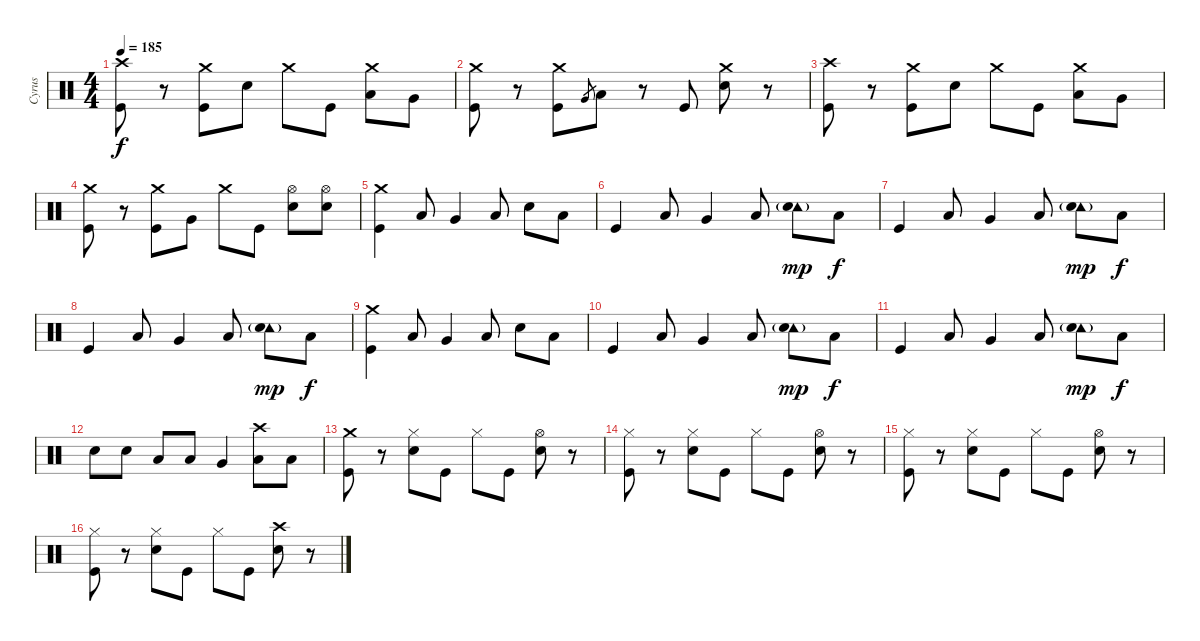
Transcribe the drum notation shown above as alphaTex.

\track ("Cyrus" "Cyrus") {instrument percussion}
\staff {score}
\articulation defaults
\ts (4 4)
\tempo 185
\clef neutral
\ks c
("Crash high (hit)" "Kick (hit)").8{dy f} r.8 ("Crash medium (hit)" "Kick (hit)").8 "Electric Snare (hit)".8 "Crash medium (hit)".8 "Kick (hit)".8 ("Crash medium (hit)" "Low Tom (hit)").8 "Very Low Tom (hit)".8 |
("Crash medium (hit)" "Kick (hit)").8 r.8 ("Crash medium (hit)" "Kick (hit)").8 "Very Low Tom (hit)".8{gr} "Low Tom (hit)".8 r.8 "Kick (hit)".8 ("Crash medium (hit)" "Electric Snare (hit)").8 r.8 |
("Crash high (hit)" "Kick (hit)").8 r.8 ("Crash medium (hit)" "Kick (hit)").8 "Electric Snare (hit)".8 "Crash medium (hit)".8 "Kick (hit)".8 ("Crash medium (hit)" "Low Tom (hit)").8 "Very Low Tom (hit)".8 |
("Crash medium (hit)" "Kick (hit)").8 r.8 ("Crash medium (hit)" "Kick (hit)").8 "Very Low Tom (hit)".8 "Crash medium (hit)".8 "Kick (hit)".8 ("Hi-Hat (open)" "Electric Snare (hit)").8 ("Hi-Hat (open)" "Electric Snare (hit)").8 |
("Crash medium (hit)" "Kick (hit)").4 "Low Tom (hit)".8 "Very Low Tom (hit)".4 "Low Tom (hit)".8 "Electric Snare (hit)".8 "Low Floor Tom (hit)".8 |
"Kick (hit)".4 "Low Tom (hit)".8 "Very Low Tom (hit)".4 "Low Tom (hit)".8 ("Tambourine (hit)"{g} "Electric Snare (hit)").8{dy mp} "Low Floor Tom (hit)".8{dy f} |
"Kick (hit)".4 "Low Tom (hit)".8 "Very Low Tom (hit)".4 "Low Tom (hit)".8 ("Tambourine (hit)"{g} "Electric Snare (hit)").8{dy mp} "Low Floor Tom (hit)".8{dy f} |
"Kick (hit)".4 "Low Tom (hit)".8 "Very Low Tom (hit)".4 "Low Tom (hit)".8 ("Tambourine (hit)"{g} "Electric Snare (hit)").8{dy mp} "Low Floor Tom (hit)".8{dy f} |
("Crash medium (hit)" "Kick (hit)").4 "Low Tom (hit)".8 "Very Low Tom (hit)".4 "Low Tom (hit)".8 "Electric Snare (hit)".8 "Low Floor Tom (hit)".8 |
"Kick (hit)".4 "Low Tom (hit)".8 "Very Low Tom (hit)".4 "Low Tom (hit)".8 ("Tambourine (hit)"{g} "Electric Snare (hit)").8{dy mp} "Low Floor Tom (hit)".8{dy f} |
"Kick (hit)".4 "Low Tom (hit)".8 "Very Low Tom (hit)".4 "Low Tom (hit)".8 ("Tambourine (hit)"{g} "Electric Snare (hit)").8{dy mp} "Low Floor Tom (hit)".8{dy f} |
"Electric Snare (hit)".8 "Electric Snare (hit)".8 "Low Tom (hit)".8 "Low Tom (hit)".8 "Very Low Tom (hit)".4 ("Crash high (hit)" "Low Floor Tom (hit)").8 "Low Floor Tom (hit)".8 |
("Crash medium (hit)" "Kick (hit)").8 r.8 ("Hi-Hat (closed)" "Electric Snare (hit)").8 "Kick (hit)".8 "Hi-Hat (closed)".8 "Kick (hit)".8 ("Hi-Hat (open)" "Electric Snare (hit)").8 r.8 |
("Hi-Hat (closed)" "Kick (hit)").8 r.8 ("Hi-Hat (closed)" "Electric Snare (hit)").8 "Kick (hit)".8 "Hi-Hat (closed)".8 "Kick (hit)".8 ("Hi-Hat (open)" "Electric Snare (hit)").8 r.8 |
("Hi-Hat (closed)" "Kick (hit)").8 r.8 ("Hi-Hat (closed)" "Electric Snare (hit)").8 "Kick (hit)".8 "Hi-Hat (closed)".8 "Kick (hit)".8 ("Hi-Hat (open)" "Electric Snare (hit)").8 r.8 |
("Hi-Hat (closed)" "Kick (hit)").8 r.8 ("Hi-Hat (closed)" "Electric Snare (hit)").8 "Kick (hit)".8 "Hi-Hat (closed)".8 "Kick (hit)".8 ("Crash high (hit)" "Electric Snare (hit)").8 r.8
